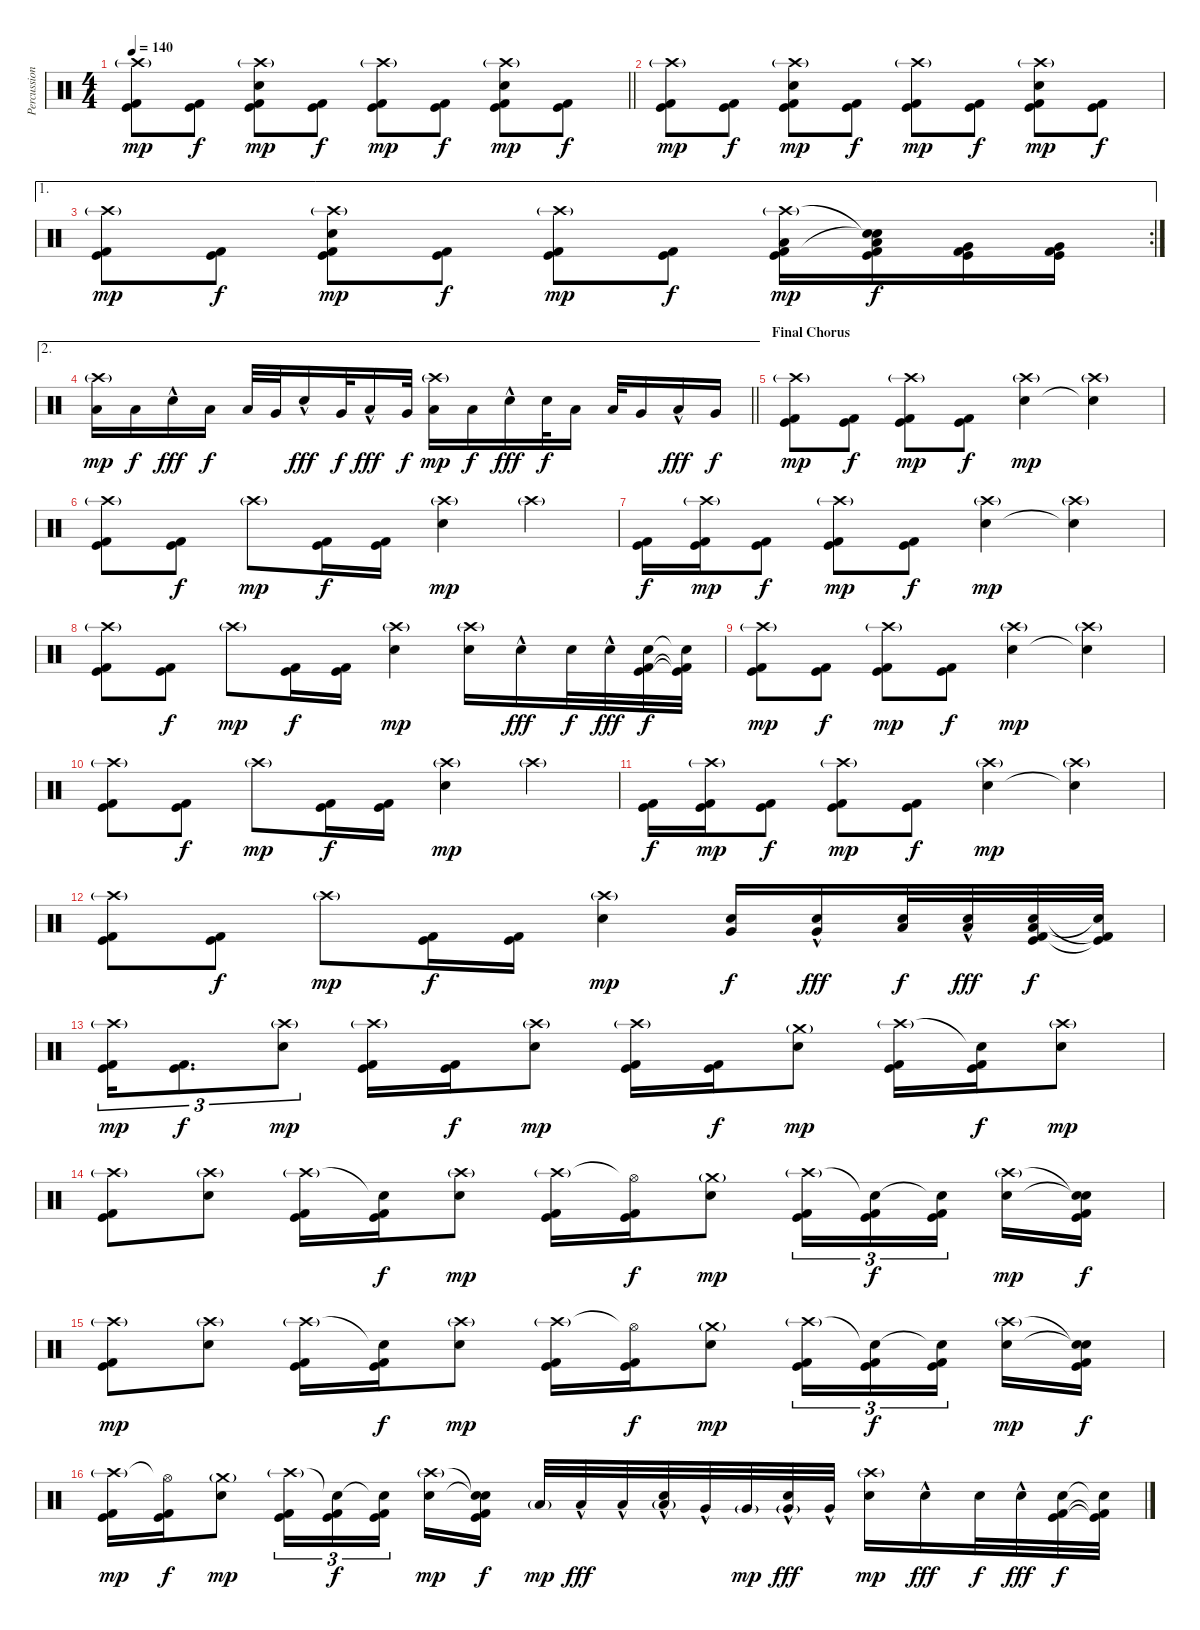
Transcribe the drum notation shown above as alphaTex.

\track ("Percussion" "Percussion") {instrument percussion}
\staff {score}
\articulation defaults
\ts (4 4)
\tempo 140
\clef neutral
\barLineRight lightlight
\ks c
("Crash high (hit)"{g} "Kick (hit) 2" "Kick (hit)").8{dy mp} ("Kick (hit) 2" "Kick (hit)").8{dy f} ("Crash high (hit)"{g} "Electric Snare (hit)" "Kick (hit) 2" "Kick (hit)").8{dy mp} ("Kick (hit) 2" "Kick (hit)").8{dy f} ("Crash high (hit)"{g} "Kick (hit) 2" "Kick (hit)").8{dy mp} ("Kick (hit) 2" "Kick (hit)").8{dy f} ("Crash high (hit)"{g} "Electric Snare (hit)" "Kick (hit) 2" "Kick (hit)").8{dy mp} ("Kick (hit) 2" "Kick (hit)").8{dy f} |
("Crash high (hit)"{g} "Kick (hit) 2" "Kick (hit)").8{dy mp} ("Kick (hit) 2" "Kick (hit)").8{dy f} ("Crash high (hit)"{g} "Electric Snare (hit)" "Kick (hit) 2" "Kick (hit)").8{dy mp} ("Kick (hit) 2" "Kick (hit)").8{dy f} ("Crash high (hit)"{g} "Kick (hit) 2" "Kick (hit)").8{dy mp} ("Kick (hit) 2" "Kick (hit)").8{dy f} ("Crash high (hit)"{g} "Electric Snare (hit)" "Kick (hit) 2" "Kick (hit)").8{dy mp} ("Kick (hit) 2" "Kick (hit)").8{dy f} |
\ae 1
\rc 2
("Crash high (hit)"{g} "Kick (hit) 2" "Kick (hit)").8{dy mp} ("Kick (hit) 2" "Kick (hit)").8{dy f} ("Crash high (hit)"{g} "Electric Snare (hit)" "Kick (hit) 2" "Kick (hit)").8{dy mp} ("Kick (hit) 2" "Kick (hit)").8{dy f} ("Crash high (hit)"{g} "Kick (hit) 2" "Kick (hit)").8{dy mp} ("Kick (hit) 2" "Kick (hit)").8{dy f} ("Crash high (hit)"{g} "Low Tom (hit)" "Kick (hit) 2" "Kick (hit)").16{dy mp} ("Snare (hit)"{t} "Low Tom (hit)" "Snare (hit)"{t} "Kick (hit) 2" "Kick (hit)").16{dy f} ("Very Low Tom (hit)" "Kick (hit) 2" "Kick (hit)").16 ("Very Low Tom (hit)" "Kick (hit) 2" "Kick (hit)").16 |
\ae 2
\barLineRight lightlight
("Crash high (hit)"{g} "Low Tom (hit)").16{dy mp} "Low Tom (hit)".16{dy f} "Electric Snare (hit)"{hac}.16{dy fff} "Low Tom (hit)".16{dy f} "Low Tom (hit)".32 "Very Low Tom (hit)".32 "Electric Snare (hit)"{hac}.16{dy fff} "Very Low Tom (hit)".32{dy f} "Low Tom (hit)"{hac}.16{dy fff} "Very Low Tom (hit)".32{dy f} ("Crash high (hit)"{g} "Low Tom (hit)").16{dy mp} "Low Tom (hit)".16{dy f} "Electric Snare (hit)"{hac}.16{dy fff} "Electric Snare (hit)".32{dy f} "Low Tom (hit)".16 "Low Tom (hit)".32 "Very Low Tom (hit)".16 "Low Tom (hit)"{hac}.16{dy fff} "Very Low Tom (hit)".16{dy f} |
\section ("" "Final Chorus")
("Crash high (hit)"{g} "Kick (hit) 2" "Kick (hit)").8{dy mp} ("Kick (hit) 2" "Kick (hit)").8{dy f} ("Crash high (hit)"{g} "Kick (hit) 2" "Kick (hit)").8{dy mp} ("Kick (hit) 2" "Kick (hit)").8{dy f} ("Crash high (hit)"{g} "Electric Snare (hit)").4{dy mp} ("Crash high (hit)"{g} "Snare (hit)"{t}).4 |
("Crash high (hit)"{g} "Kick (hit) 2" "Kick (hit)").8 ("Kick (hit) 2" "Kick (hit)").8{dy f} "Crash high (hit)"{g}.8{dy mp} ("Kick (hit) 2" "Kick (hit)").16{dy f} ("Kick (hit) 2" "Kick (hit)").16 ("Crash high (hit)"{g} "Electric Snare (hit)").4{dy mp} "Crash high (hit)"{g}.4 |
("Kick (hit) 2" "Kick (hit)").16{dy f} ("Crash high (hit)"{g} "Kick (hit) 2" "Kick (hit)").16{dy mp} ("Kick (hit) 2" "Kick (hit)").8{dy f} ("Crash high (hit)"{g} "Kick (hit) 2" "Kick (hit)").8{dy mp} ("Kick (hit) 2" "Kick (hit)").8{dy f} ("Crash high (hit)"{g} "Electric Snare (hit)").4{dy mp} ("Crash high (hit)"{g} "Snare (hit)"{t}).4 |
("Crash high (hit)"{g} "Kick (hit) 2" "Kick (hit)").8 ("Kick (hit) 2" "Kick (hit)").8{dy f} "Crash high (hit)"{g}.8{dy mp} ("Kick (hit) 2" "Kick (hit)").16{dy f} ("Kick (hit) 2" "Kick (hit)").16 ("Crash high (hit)"{g} "Electric Snare (hit)").4{dy mp} ("Crash high (hit)"{g} "Electric Snare (hit)").16 "Electric Snare (hit)"{hac}.16{dy fff} "Electric Snare (hit)".32{dy f} "Electric Snare (hit)"{hac}.32{dy fff} ("Electric Snare (hit)" "Kick (hit) 2" "Kick (hit)").32{dy f} ("Electric Snare (hit)"{t} "Kick (hit) 2"{t} "Kick (hit)"{t}).32 |
("Crash high (hit)"{g} "Kick (hit) 2" "Kick (hit)").8{dy mp} ("Kick (hit) 2" "Kick (hit)").8{dy f} ("Crash high (hit)"{g} "Kick (hit) 2" "Kick (hit)").8{dy mp} ("Kick (hit) 2" "Kick (hit)").8{dy f} ("Crash high (hit)"{g} "Electric Snare (hit)").4{dy mp} ("Crash high (hit)"{g} "Snare (hit)"{t}).4 |
("Crash high (hit)"{g} "Kick (hit) 2" "Kick (hit)").8 ("Kick (hit) 2" "Kick (hit)").8{dy f} "Crash high (hit)"{g}.8{dy mp} ("Kick (hit) 2" "Kick (hit)").16{dy f} ("Kick (hit) 2" "Kick (hit)").16 ("Crash high (hit)"{g} "Electric Snare (hit)").4{dy mp} "Crash high (hit)"{g}.4 |
("Kick (hit) 2" "Kick (hit)").16{dy f} ("Crash high (hit)"{g} "Kick (hit) 2" "Kick (hit)").16{dy mp} ("Kick (hit) 2" "Kick (hit)").8{dy f} ("Crash high (hit)"{g} "Kick (hit) 2" "Kick (hit)").8{dy mp} ("Kick (hit) 2" "Kick (hit)").8{dy f} ("Crash high (hit)"{g} "Electric Snare (hit)").4{dy mp} ("Crash high (hit)"{g} "Snare (hit)"{t}).4 |
("Crash high (hit)"{g} "Kick (hit) 2" "Kick (hit)").8 ("Kick (hit) 2" "Kick (hit)").8{dy f} "Crash high (hit)"{g}.8{dy mp} ("Kick (hit) 2" "Kick (hit)").16{dy f} ("Kick (hit) 2" "Kick (hit)").16 ("Crash high (hit)"{g} "Electric Snare (hit)").4{dy mp} ("Very Low Tom (hit)" "Electric Snare (hit)").16{dy f} ("Very Low Tom (hit)" "Electric Snare (hit)"{hac}).16{dy fff} ("Low Tom (hit)" "Electric Snare (hit)").32{dy f} ("Low Tom (hit)" "Electric Snare (hit)"{hac}).32{dy fff} ("Low Tom (hit)" "Electric Snare (hit)" "Kick (hit) 2" "Kick (hit)").32{dy f} ("Electric Snare (hit)"{t} "Kick (hit) 2"{t} "Kick (hit)"{t}).32 |
("Crash high (hit)"{g} "Kick (hit) 2" "Kick (hit)").16{tu (3 2) dy mp} ("Kick (hit) 2" "Kick (hit)").8{d tu (3 2) dy f} ("Crash high (hit)"{g} "Electric Snare (hit)").8{tu (3 2) dy mp} ("Crash high (hit)"{g} "Kick (hit) 2" "Kick (hit)").16 ("Kick (hit) 2" "Kick (hit)").16{dy f} ("Crash high (hit)"{g} "Electric Snare (hit)").8{dy mp} ("Crash high (hit)"{g} "Kick (hit) 2" "Kick (hit)").16 ("Kick (hit) 2" "Kick (hit)").16{dy f} ("Crash medium (hit)"{g} "Electric Snare (hit)").8{dy mp} ("Crash high (hit)"{g} "Kick (hit) 2" "Kick (hit)").16 ("Snare (hit)"{t} "Kick (hit) 2" "Kick (hit)").16{dy f} ("Crash high (hit)"{g} "Electric Snare (hit)").8{dy mp} |
("Crash high (hit)"{g} "Kick (hit) 2" "Kick (hit)").8 ("Crash high (hit)"{g} "Electric Snare (hit)").8 ("Crash high (hit)"{g} "Kick (hit) 2" "Kick (hit)").16 ("Snare (hit)"{t} "Kick (hit) 2" "Kick (hit)").16{dy f} ("Crash high (hit)"{g} "Electric Snare (hit)").8{dy mp} ("Crash high (hit)"{g} "Kick (hit) 2" "Kick (hit)").16 ("Hi-Hat (open)"{t} "Kick (hit) 2" "Kick (hit)").16{dy f} ("Crash medium (hit)"{g} "Electric Snare (hit)").8{dy mp} ("Crash high (hit)"{g} "Kick (hit) 2" "Kick (hit)").16{tu (3 2)} ("Snare (hit)"{t} "Kick (hit) 2" "Kick (hit)").16{tu (3 2) dy f} ("Snare (hit)"{t} "Kick (hit) 2" "Kick (hit)").16{tu (3 2) beam splitsecondary} ("Crash high (hit)"{g} "Electric Snare (hit)").16{dy mp} ("Snare (hit)"{t} "Snare (hit)"{t} "Kick (hit) 2" "Kick (hit)").16{dy f} |
("Crash high (hit)"{g} "Kick (hit) 2" "Kick (hit)").8{dy mp} ("Crash high (hit)"{g} "Electric Snare (hit)").8 ("Crash high (hit)"{g} "Kick (hit) 2" "Kick (hit)").16 ("Snare (hit)"{t} "Kick (hit) 2" "Kick (hit)").16{dy f} ("Crash high (hit)"{g} "Electric Snare (hit)").8{dy mp} ("Crash high (hit)"{g} "Kick (hit) 2" "Kick (hit)").16 ("Hi-Hat (open)"{t} "Kick (hit) 2" "Kick (hit)").16{dy f} ("Crash medium (hit)"{g} "Electric Snare (hit)").8{dy mp} ("Crash high (hit)"{g} "Kick (hit) 2" "Kick (hit)").16{tu (3 2)} ("Snare (hit)"{t} "Kick (hit) 2" "Kick (hit)").16{tu (3 2) dy f} ("Snare (hit)"{t} "Kick (hit) 2" "Kick (hit)").16{tu (3 2) beam splitsecondary} ("Crash high (hit)"{g} "Electric Snare (hit)").16{dy mp} ("Snare (hit)"{t} "Snare (hit)"{t} "Kick (hit) 2" "Kick (hit)").16{dy f} |
("Crash high (hit)"{g} "Kick (hit) 2" "Kick (hit)").16{dy mp} ("Hi-Hat (open)"{t} "Kick (hit) 2" "Kick (hit)").16{dy f} ("Crash medium (hit)"{g} "Electric Snare (hit)").8{dy mp} ("Crash high (hit)"{g} "Kick (hit) 2" "Kick (hit)").16{tu (3 2)} ("Snare (hit)"{t} "Kick (hit) 2" "Kick (hit)").16{tu (3 2) dy f} ("Snare (hit)"{t} "Kick (hit) 2" "Kick (hit)").16{tu (3 2) beam splitsecondary} ("Crash high (hit)"{g} "Electric Snare (hit)").16{dy mp} ("Snare (hit)"{t} "Snare (hit)"{t} "Kick (hit) 2" "Kick (hit)").16{dy f} "Low Tom (hit)"{g}.32{dy mp} "Low Tom (hit)"{hac}.32{dy fff} "Low Tom (hit)"{hac}.32 ("Low Tom (hit)"{g} "Electric Snare (hit)"{hac}).32 "Very Low Tom (hit)"{hac}.32 "Very Low Tom (hit)"{g}.32{dy mp} ("Very Low Tom (hit)"{g} "Electric Snare (hit)"{hac}).32{dy fff} "Very Low Tom (hit)"{hac}.32 ("Crash high (hit)"{g} "Electric Snare (hit)").16{dy mp} "Electric Snare (hit)"{hac}.16{dy fff} "Electric Snare (hit)".32{dy f} "Electric Snare (hit)"{hac}.32{dy fff} ("Electric Snare (hit)" "Kick (hit) 2" "Kick (hit)").32{dy f} ("Electric Snare (hit)"{t} "Kick (hit) 2"{t} "Kick (hit)"{t}).32
